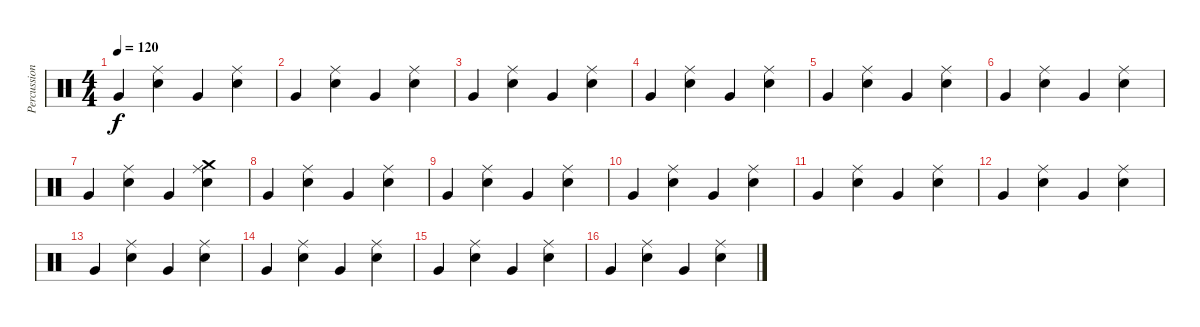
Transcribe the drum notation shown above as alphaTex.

\track ("Percussion" "Percussion") {instrument percussion}
\staff {score}
\articulation defaults
\ts (4 4)
\tempo 120
\clef neutral
\ks c "Very Low Tom (hit)".4{dy f}
("Ride (middle)" "Snare (hit) 2").4 "Very Low Tom (hit)".4 ("Ride (middle)" "Snare (hit) 2").4 |
"Very Low Tom (hit)".4 ("Ride (middle)" "Snare (hit) 2").4 "Very Low Tom (hit)".4 ("Ride (middle)" "Snare (hit) 2").4 |
"Very Low Tom (hit)".4 ("Ride (middle)" "Snare (hit) 2").4 "Very Low Tom (hit)".4 ("Ride (middle)" "Snare (hit) 2").4 |
"Very Low Tom (hit)".4 ("Ride (middle)" "Snare (hit) 2").4 "Very Low Tom (hit)".4 ("Ride (middle)" "Snare (hit) 2").4 |
"Very Low Tom (hit)".4 ("Ride (middle)" "Snare (hit) 2").4 "Very Low Tom (hit)".4 ("Ride (middle)" "Snare (hit) 2").4 |
"Very Low Tom (hit)".4 ("Ride (middle)" "Snare (hit) 2").4 "Very Low Tom (hit)".4 ("Ride (middle)" "Snare (hit) 2").4 |
"Very Low Tom (hit)".4 ("Ride (middle)" "Snare (hit) 2").4 "Very Low Tom (hit)".4 ("Crash medium (hit)" "Ride (middle)" "Snare (hit) 2").4 |
"Very Low Tom (hit)".4{volume 16} ("Ride (middle)" "Snare (hit) 2").4 "Very Low Tom (hit)".4 ("Ride (middle)" "Snare (hit) 2").4 |
"Very Low Tom (hit)".4 ("Ride (middle)" "Snare (hit) 2").4 "Very Low Tom (hit)".4 ("Ride (middle)" "Snare (hit) 2").4 |
"Very Low Tom (hit)".4 ("Ride (middle)" "Snare (hit) 2").4 "Very Low Tom (hit)".4 ("Ride (middle)" "Snare (hit) 2").4 |
"Very Low Tom (hit)".4 ("Ride (middle)" "Snare (hit) 2").4 "Very Low Tom (hit)".4 ("Ride (middle)" "Snare (hit) 2").4 |
"Very Low Tom (hit)".4 ("Ride (middle)" "Snare (hit) 2").4 "Very Low Tom (hit)".4 ("Ride (middle)" "Snare (hit) 2").4 |
"Very Low Tom (hit)".4 ("Ride (middle)" "Snare (hit) 2").4 "Very Low Tom (hit)".4 ("Ride (middle)" "Snare (hit) 2").4 |
"Very Low Tom (hit)".4 ("Ride (middle)" "Snare (hit) 2").4 "Very Low Tom (hit)".4 ("Ride (middle)" "Snare (hit) 2").4 |
"Very Low Tom (hit)".4 ("Ride (middle)" "Snare (hit) 2").4 "Very Low Tom (hit)".4 ("Ride (middle)" "Snare (hit) 2").4 |
"Very Low Tom (hit)".4 ("Ride (middle)" "Snare (hit) 2").4 "Very Low Tom (hit)".4 ("Ride (middle)" "Snare (hit) 2").4
